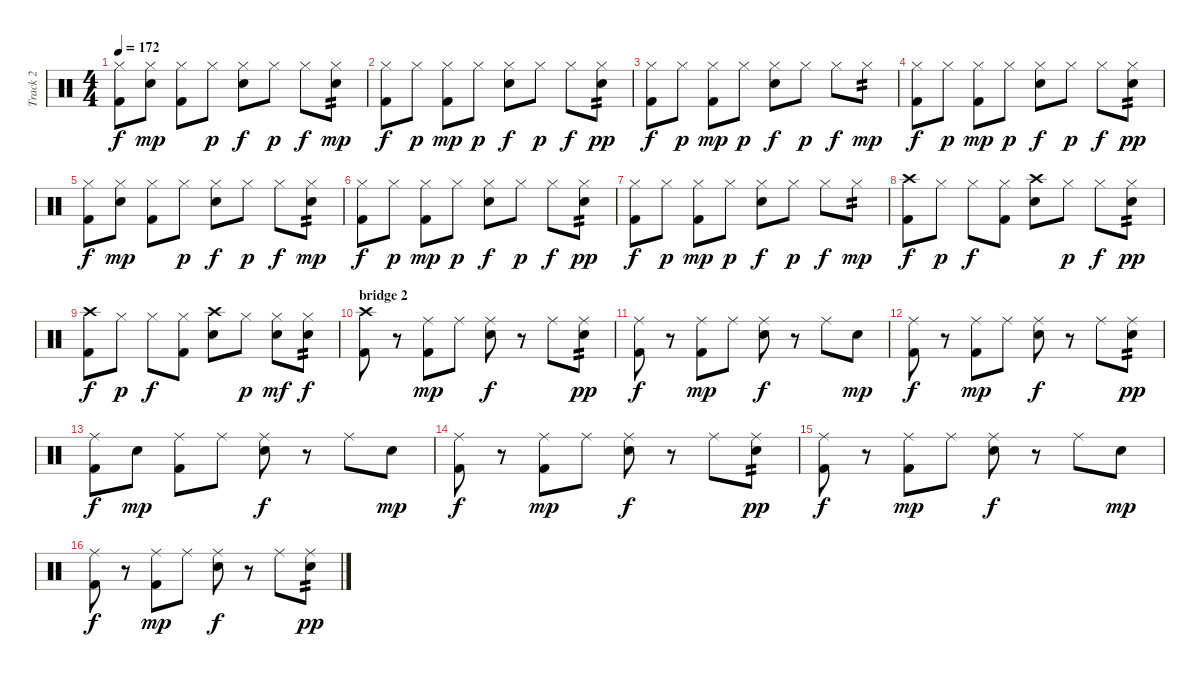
\track ("Track 2" "Track 2") {instrument percussion}
\staff {score}
\articulation defaults
\ts (4 4)
\tempo 172
\clef neutral
\ks c
("Hi-Hat (closed)" "Kick (hit) 2").8{dy f} ("Hi-Hat (closed)" "Snare (hit) 2").8{dy mp} ("Hi-Hat (closed)" "Kick (hit) 2").8 "Hi-Hat (closed)".8{dy p} ("Hi-Hat (closed)" "Snare (hit) 2").8{dy f} "Hi-Hat (closed)".8{dy p} "Hi-Hat (closed)".8{dy f} ("Hi-Hat (closed)" "Snare (hit) 2").8{tp 2 dy mp} |
("Hi-Hat (closed)" "Kick (hit) 2").8{dy f} "Hi-Hat (closed)".8{dy p} ("Hi-Hat (closed)" "Kick (hit) 2").8{dy mp} "Hi-Hat (closed)".8{dy p} ("Hi-Hat (closed)" "Snare (hit) 2").8{dy f} "Hi-Hat (closed)".8{dy p} "Hi-Hat (closed)".8{dy f} ("Hi-Hat (closed)" "Snare (hit) 2").8{tp 2 dy pp} |
("Hi-Hat (closed)" "Kick (hit) 2").8{dy f} "Hi-Hat (closed)".8{dy p} ("Hi-Hat (closed)" "Kick (hit) 2").8{dy mp} "Hi-Hat (closed)".8{dy p} ("Hi-Hat (closed)" "Snare (hit) 2").8{dy f} "Hi-Hat (closed)".8{dy p} "Hi-Hat (closed)".8{dy f} "Hi-Hat (closed)".8{tp 2 dy mp} |
("Hi-Hat (closed)" "Kick (hit) 2").8{dy f} "Hi-Hat (closed)".8{dy p} ("Hi-Hat (closed)" "Kick (hit) 2").8{dy mp} "Hi-Hat (closed)".8{dy p} ("Hi-Hat (closed)" "Snare (hit) 2").8{dy f} "Hi-Hat (closed)".8{dy p} "Hi-Hat (closed)".8{dy f} ("Hi-Hat (closed)" "Snare (hit) 2").8{tp 2 dy pp} |
("Hi-Hat (closed)" "Kick (hit) 2").8{dy f} ("Hi-Hat (closed)" "Snare (hit) 2").8{dy mp} ("Hi-Hat (closed)" "Kick (hit) 2").8 "Hi-Hat (closed)".8{dy p} ("Hi-Hat (closed)" "Snare (hit) 2").8{dy f} "Hi-Hat (closed)".8{dy p} "Hi-Hat (closed)".8{dy f} ("Hi-Hat (closed)" "Snare (hit) 2").8{tp 2 dy mp} |
("Hi-Hat (closed)" "Kick (hit) 2").8{dy f} "Hi-Hat (closed)".8{dy p} ("Hi-Hat (closed)" "Kick (hit) 2").8{dy mp} "Hi-Hat (closed)".8{dy p} ("Hi-Hat (closed)" "Snare (hit) 2").8{dy f} "Hi-Hat (closed)".8{dy p} "Hi-Hat (closed)".8{dy f} ("Hi-Hat (closed)" "Snare (hit) 2").8{tp 2 dy pp} |
("Hi-Hat (closed)" "Kick (hit) 2").8{dy f} "Hi-Hat (closed)".8{dy p} ("Hi-Hat (closed)" "Kick (hit) 2").8{dy mp} "Hi-Hat (closed)".8{dy p} ("Hi-Hat (closed)" "Snare (hit) 2").8{dy f} "Hi-Hat (closed)".8{dy p} "Hi-Hat (closed)".8{dy f} "Hi-Hat (closed)".8{tp 2 dy mp} |
("Crash high (hit)" "Kick (hit) 2").8{dy f} "Hi-Hat (closed)".8{dy p} "Hi-Hat (closed)".8{dy f} ("Hi-Hat (closed)" "Kick (hit) 2").8 ("Crash high (hit)" "Snare (hit) 2").8 "Hi-Hat (closed)".8{dy p} "Hi-Hat (closed)".8{dy f} ("Hi-Hat (closed)" "Snare (hit) 2").8{tp 2 dy pp} |
("Crash high (hit)" "Kick (hit) 2").8{dy f} "Hi-Hat (closed)".8{dy p} "Hi-Hat (closed)".8{dy f} ("Hi-Hat (closed)" "Kick (hit) 2").8 ("Crash high (hit)" "Snare (hit) 2").8 "Hi-Hat (closed)".8{dy p} ("Hi-Hat (closed)" "Snare (hit) 2").8{dy mf} ("Hi-Hat (closed)" "Snare (hit) 2").8{tp 2 dy f} |
\section ("" "bridge 2")
("Crash high (hit)" "Kick (hit) 2").8 r.8 ("Ride (middle)" "Kick (hit) 2").8{dy mp} "Ride (middle)".8 ("Ride (middle)" "Snare (hit) 2").8{dy f} r.8 "Ride (middle)".8 ("Ride (middle)" "Snare (hit) 2").8{tp 2 dy pp} |
("Ride (middle)" "Kick (hit) 2").8{dy f} r.8 ("Ride (middle)" "Kick (hit) 2").8{dy mp} "Ride (middle)".8 ("Ride (middle)" "Snare (hit) 2").8{dy f} r.8 "Ride (middle)".8 "Snare (hit) 2".8{dy mp} |
("Ride (middle)" "Kick (hit) 2").8{dy f} r.8 ("Ride (middle)" "Kick (hit) 2").8{dy mp} "Ride (middle)".8 ("Ride (middle)" "Snare (hit) 2").8{dy f} r.8 "Ride (middle)".8 ("Ride (middle)" "Snare (hit) 2").8{tp 2 dy pp} |
("Ride (middle)" "Kick (hit) 2").8{dy f} "Snare (hit) 2".8{dy mp} ("Ride (middle)" "Kick (hit) 2").8 "Ride (middle)".8 ("Ride (middle)" "Snare (hit) 2").8{dy f} r.8 "Ride (middle)".8 "Snare (hit) 2".8{dy mp} |
("Ride (middle)" "Kick (hit) 2").8{dy f} r.8 ("Ride (middle)" "Kick (hit) 2").8{dy mp} "Ride (middle)".8 ("Ride (middle)" "Snare (hit) 2").8{dy f} r.8 "Ride (middle)".8 ("Ride (middle)" "Snare (hit) 2").8{tp 2 dy pp} |
("Ride (middle)" "Kick (hit) 2").8{dy f} r.8 ("Ride (middle)" "Kick (hit) 2").8{dy mp} "Ride (middle)".8 ("Ride (middle)" "Snare (hit) 2").8{dy f} r.8 "Ride (middle)".8 "Snare (hit) 2".8{dy mp} |
("Ride (middle)" "Kick (hit) 2").8{dy f} r.8 ("Ride (middle)" "Kick (hit) 2").8{dy mp} "Ride (middle)".8 ("Ride (middle)" "Snare (hit) 2").8{dy f} r.8 "Ride (middle)".8 ("Ride (middle)" "Snare (hit) 2").8{tp 2 dy pp}
